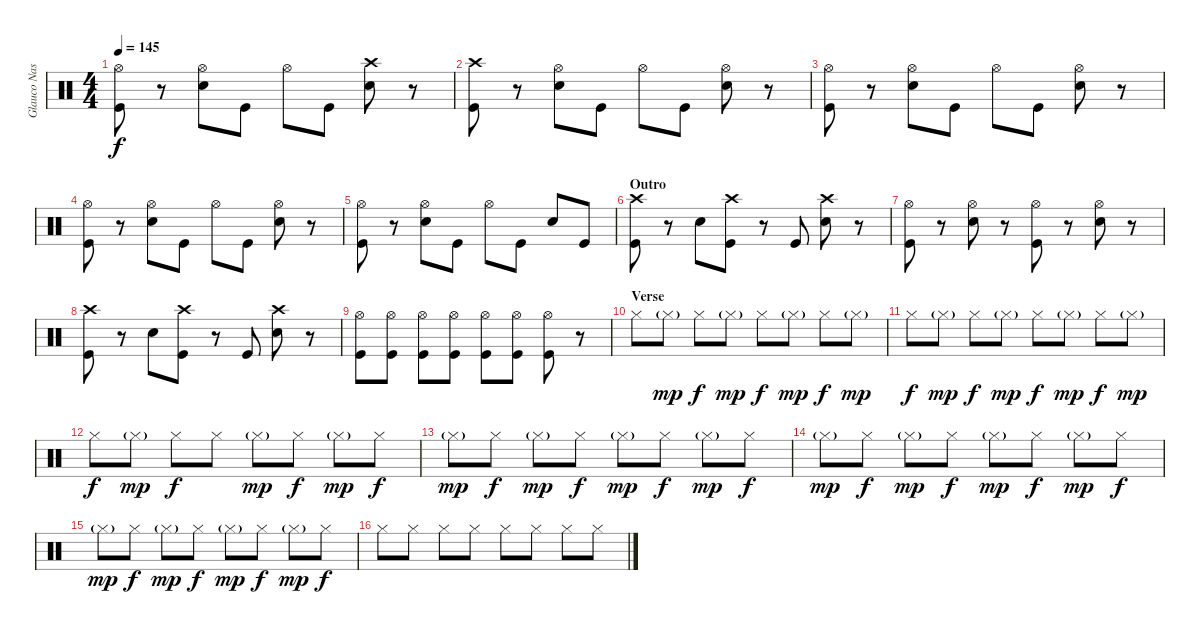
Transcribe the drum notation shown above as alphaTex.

\track ("Glauco Nastácia" "Glauco Nas") {instrument percussion}
\staff {score}
\articulation defaults
\ts (4 4)
\tempo 145
\clef neutral
\ks c
("Hi-Hat (open)" "Kick (hit)").8{dy f} r.8 ("Hi-Hat (open)" "Electric Snare (hit)").8 "Kick (hit)".8 "Hi-Hat (open)".8 "Kick (hit)".8 ("Crash high (hit)" "Electric Snare (hit)").8 r.8 |
("Crash high (hit)" "Kick (hit)").8 r.8 ("Hi-Hat (open)" "Electric Snare (hit)").8 "Kick (hit)".8 "Hi-Hat (open)".8 "Kick (hit)".8 ("Hi-Hat (open)" "Electric Snare (hit)").8 r.8 |
("Hi-Hat (open)" "Kick (hit)").8 r.8 ("Hi-Hat (open)" "Electric Snare (hit)").8 "Kick (hit)".8 "Hi-Hat (open)".8 "Kick (hit)".8 ("Hi-Hat (open)" "Electric Snare (hit)").8 r.8 |
("Hi-Hat (open)" "Kick (hit)").8 r.8 ("Hi-Hat (open)" "Electric Snare (hit)").8 "Kick (hit)".8 "Hi-Hat (open)".8 "Kick (hit)".8 ("Hi-Hat (open)" "Electric Snare (hit)").8 r.8 |
("Hi-Hat (open)" "Kick (hit)").8 r.8 ("Hi-Hat (open)" "Electric Snare (hit)").8 "Kick (hit)".8 "Hi-Hat (open)".8 "Kick (hit)".8 "Electric Snare (hit)".8 "Kick (hit)".8 |
\section ("" "Outro")
("Crash high (hit)" "Kick (hit)").8 r.8 "Electric Snare (hit)".8 ("Crash high (hit)" "Kick (hit)").8 r.8 "Kick (hit)".8 ("Crash high (hit)" "Electric Snare (hit)").8 r.8 |
("Hi-Hat (open)" "Kick (hit)").8 r.8 ("Hi-Hat (open)" "Electric Snare (hit)").8 r.8 ("Hi-Hat (open)" "Kick (hit)").8 r.8 ("Hi-Hat (open)" "Electric Snare (hit)").8 r.8 |
("Crash high (hit)" "Kick (hit)").8 r.8 "Electric Snare (hit)".8 ("Crash high (hit)" "Kick (hit)").8 r.8 "Kick (hit)".8 ("Crash high (hit)" "Electric Snare (hit)").8 r.8 |
("Hi-Hat (open)" "Kick (hit)").8 ("Hi-Hat (open)" "Kick (hit)").8 ("Hi-Hat (open)" "Kick (hit)").8 ("Hi-Hat (open)" "Kick (hit)").8 ("Hi-Hat (open)" "Kick (hit)").8 ("Hi-Hat (open)" "Kick (hit)").8 ("Hi-Hat (open)" "Kick (hit)").8 r.8 |
\section ("" "Verse")
"Hi-Hat (closed)".8 "Hi-Hat (closed)"{g}.8{dy mp} "Hi-Hat (closed)".8{dy f} "Hi-Hat (closed)"{g}.8{dy mp} "Hi-Hat (closed)".8{dy f} "Hi-Hat (closed)"{g}.8{dy mp} "Hi-Hat (closed)".8{dy f} "Hi-Hat (closed)"{g}.8{dy mp} |
"Hi-Hat (closed)".8{dy f} "Hi-Hat (closed)"{g}.8{dy mp} "Hi-Hat (closed)".8{dy f} "Hi-Hat (closed)"{g}.8{dy mp} "Hi-Hat (closed)".8{dy f} "Hi-Hat (closed)"{g}.8{dy mp} "Hi-Hat (closed)".8{dy f} "Hi-Hat (closed)"{g}.8{dy mp} |
"Hi-Hat (closed)".8{dy f} "Hi-Hat (closed)"{g}.8{dy mp} "Hi-Hat (closed)".8{dy f} "Hi-Hat (closed)".8 "Hi-Hat (closed)"{g}.8{dy mp} "Hi-Hat (closed)".8{dy f} "Hi-Hat (closed)"{g}.8{dy mp} "Hi-Hat (closed)".8{dy f} |
"Hi-Hat (closed)"{g}.8{dy mp} "Hi-Hat (closed)".8{dy f} "Hi-Hat (closed)"{g}.8{dy mp} "Hi-Hat (closed)".8{dy f} "Hi-Hat (closed)"{g}.8{dy mp} "Hi-Hat (closed)".8{dy f} "Hi-Hat (closed)"{g}.8{dy mp} "Hi-Hat (closed)".8{dy f} |
"Hi-Hat (closed)"{g}.8{dy mp} "Hi-Hat (closed)".8{dy f} "Hi-Hat (closed)"{g}.8{dy mp} "Hi-Hat (closed)".8{dy f} "Hi-Hat (closed)"{g}.8{dy mp} "Hi-Hat (closed)".8{dy f} "Hi-Hat (closed)"{g}.8{dy mp} "Hi-Hat (closed)".8{dy f} |
"Hi-Hat (closed)"{g}.8{dy mp} "Hi-Hat (closed)".8{dy f} "Hi-Hat (closed)"{g}.8{dy mp} "Hi-Hat (closed)".8{dy f} "Hi-Hat (closed)"{g}.8{dy mp} "Hi-Hat (closed)".8{dy f} "Hi-Hat (closed)"{g}.8{dy mp} "Hi-Hat (closed)".8{dy f} |
"Hi-Hat (closed)".8 "Hi-Hat (closed)".8 "Hi-Hat (closed)".8 "Hi-Hat (closed)".8 "Hi-Hat (closed)".8 "Hi-Hat (closed)".8 "Hi-Hat (closed)".8 "Hi-Hat (closed)".8
